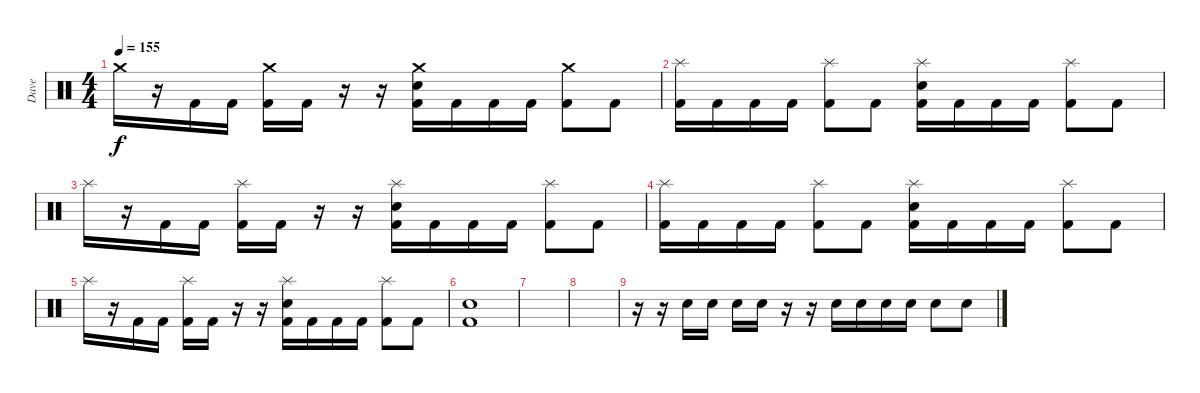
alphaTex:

\track ("Dave" "Dave") {instrument percussion}
\staff {score}
\articulation defaults
\ts (4 4)
\tempo 155
\clef neutral
\ks c "Crash medium (hit)".16{dy f}
r.16 "Kick (hit) 2".16 "Kick (hit) 2".16 ("Crash medium (hit)" "Kick (hit) 2").16 "Kick (hit) 2".16 r.16 r.16 ("Crash medium (hit)" "Snare (hit) 2" "Kick (hit) 2").16 "Kick (hit) 2".16 "Kick (hit) 2".16 "Kick (hit) 2".16 ("Crash medium (hit)" "Kick (hit) 2").8 "Kick (hit) 2".8 |
("Splash (hit)" "Kick (hit) 2").16 "Kick (hit) 2".16 "Kick (hit) 2".16 "Kick (hit) 2".16 ("Splash (hit)" "Kick (hit) 2").8 "Kick (hit) 2".8 ("Splash (hit)" "Snare (hit) 2" "Kick (hit) 2").16 "Kick (hit) 2".16 "Kick (hit) 2".16 "Kick (hit) 2".16 ("Splash (hit)" "Kick (hit) 2").8 "Kick (hit) 2".8 |
"Splash (hit)".16 r.16 "Kick (hit) 2".16 "Kick (hit) 2".16 ("Splash (hit)" "Kick (hit) 2").16 "Kick (hit) 2".16 r.16 r.16 ("Splash (hit)" "Snare (hit) 2" "Kick (hit) 2").16 "Kick (hit) 2".16 "Kick (hit) 2".16 "Kick (hit) 2".16 ("Splash (hit)" "Kick (hit) 2").8 "Kick (hit) 2".8 |
("Splash (hit)" "Kick (hit) 2").16 "Kick (hit) 2".16 "Kick (hit) 2".16 "Kick (hit) 2".16 ("Splash (hit)" "Kick (hit) 2").8 "Kick (hit) 2".8 ("Splash (hit)" "Snare (hit) 2" "Kick (hit) 2").16 "Kick (hit) 2".16 "Kick (hit) 2".16 "Kick (hit) 2".16 ("Splash (hit)" "Kick (hit) 2").8 "Kick (hit) 2".8 |
"Splash (hit)".16 r.16 "Kick (hit) 2".16 "Kick (hit) 2".16 ("Splash (hit)" "Kick (hit) 2").16 "Kick (hit) 2".16 r.16 r.16 ("Splash (hit)" "Snare (hit) 2" "Kick (hit) 2").16 "Kick (hit) 2".16 "Kick (hit) 2".16 "Kick (hit) 2".16 ("Splash (hit)" "Kick (hit) 2").8 "Kick (hit) 2".8 |
("Snare (hit) 2" "Kick (hit) 2").1 |
|
|
r.16 r.16 "Snare (hit) 2".16 "Snare (hit) 2".16 "Snare (hit) 2".16 "Snare (hit) 2".16 r.16 r.16 "Snare (hit) 2".16 "Snare (hit) 2".16 "Snare (hit) 2".16 "Snare (hit) 2".16 "Snare (hit) 2".8 "Snare (hit) 2".8
